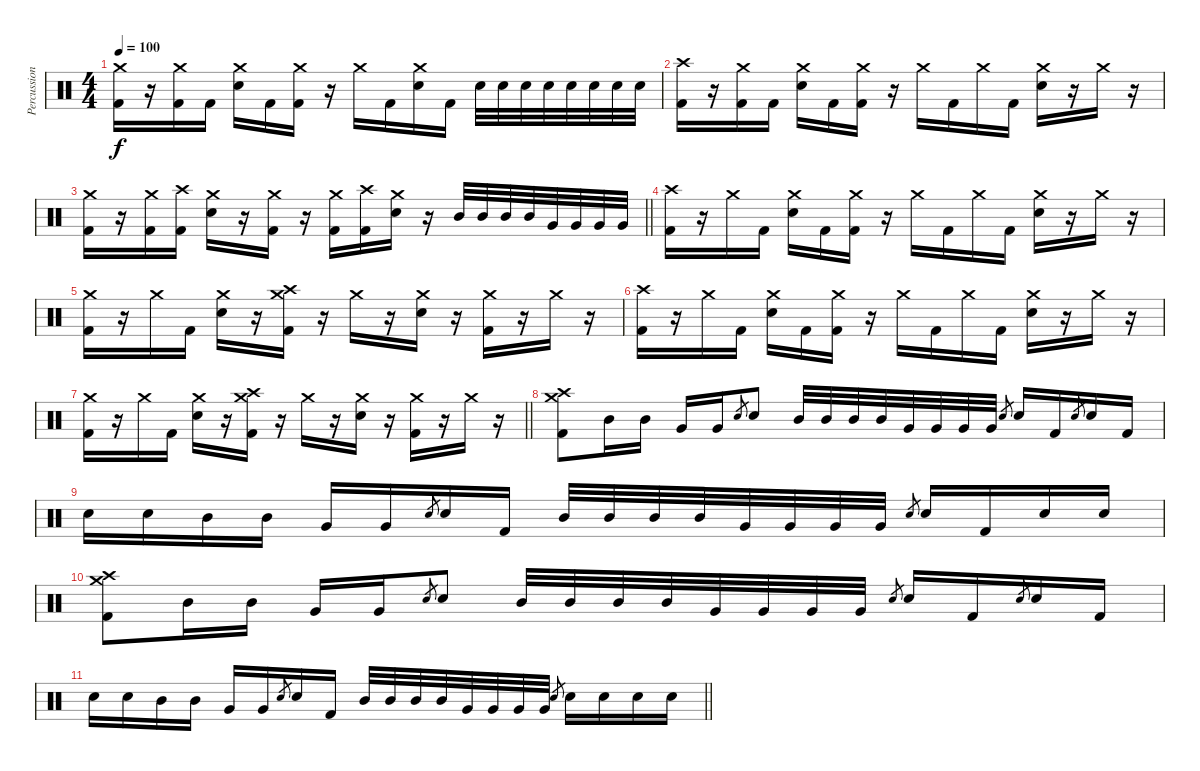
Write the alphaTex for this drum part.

\track ("Percussion" "Percussion") {instrument percussion}
\staff {score}
\articulation defaults
\ts (4 4)
\tempo 100
\clef neutral
\ks c
("Crash medium (hit)" "Kick (hit) 2").16{dy f} r.16 ("Crash medium (hit)" "Kick (hit) 2").16 "Kick (hit) 2".16 ("Crash medium (hit)" "Electric Snare (hit)").16 "Kick (hit) 2".16 ("Crash medium (hit)" "Kick (hit) 2").16 r.16 "Crash medium (hit)".16 "Kick (hit) 2".16 ("Crash medium (hit)" "Electric Snare (hit)").16 "Kick (hit) 2".16 "Electric Snare (hit)".32 "Electric Snare (hit)".32 "Electric Snare (hit)".32 "Electric Snare (hit)".32 "Electric Snare (hit)".32 "Electric Snare (hit)".32 "Electric Snare (hit)".32 "Electric Snare (hit)".32 |
("Crash high (hit)" "Kick (hit) 2").16 r.16 ("Crash medium (hit)" "Kick (hit) 2").16 "Kick (hit) 2".16 ("Crash medium (hit)" "Electric Snare (hit)").16 "Kick (hit) 2".16 ("Crash medium (hit)" "Kick (hit) 2").16 r.16 "Crash medium (hit)".16 "Kick (hit) 2".16 "Crash medium (hit)".16 "Kick (hit) 2".16 ("Crash medium (hit)" "Electric Snare (hit)").16 r.16 "Crash medium (hit)".16 r.16 |
\barLineRight lightlight
("Crash medium (hit)" "Kick (hit) 2").16 r.16 ("Crash medium (hit)" "Kick (hit) 2").16 ("Crash high (hit)" "Kick (hit) 2").16 ("Crash medium (hit)" "Electric Snare (hit)").16 r.16 ("Crash medium (hit)" "Kick (hit) 2").16 r.16 ("Crash medium (hit)" "Kick (hit) 2").16 ("Crash high (hit)" "Kick (hit) 2").16 ("Crash medium (hit)" "Electric Snare (hit)").16 r.16 "Mid Tom (hit)".32 "Mid Tom (hit)".32 "Mid Tom (hit)".32 "Mid Tom (hit)".32 "Very Low Tom (hit)".32 "Very Low Tom (hit)".32 "Very Low Tom (hit)".32 "Very Low Tom (hit)".32 |
("Crash high (hit)" "Kick (hit) 2").16 r.16 "Crash medium (hit)".16 "Kick (hit) 2".16 ("Crash medium (hit)" "Electric Snare (hit)").16 "Kick (hit) 2".16 ("Crash medium (hit)" "Kick (hit) 2").16 r.16 "Crash medium (hit)".16 "Kick (hit) 2".16 "Crash medium (hit)".16 "Kick (hit) 2".16 ("Crash medium (hit)" "Electric Snare (hit)").16 r.16 "Crash medium (hit)".16 r.16 |
("Crash medium (hit)" "Kick (hit) 2").16 r.16 "Crash medium (hit)".16 "Kick (hit) 2".16 ("Crash medium (hit)" "Electric Snare (hit)").16 r.16 ("Crash high (hit)" "Crash medium (hit)" "Kick (hit) 2").16 r.16 "Crash medium (hit)".16 r.16 ("Crash medium (hit)" "Electric Snare (hit)").16 r.16 ("Crash medium (hit)" "Kick (hit) 2").16 r.16 "Crash medium (hit)".16 r.16 |
("Crash high (hit)" "Kick (hit) 2").16 r.16 "Crash medium (hit)".16 "Kick (hit) 2".16 ("Crash medium (hit)" "Electric Snare (hit)").16 "Kick (hit) 2".16 ("Crash medium (hit)" "Kick (hit) 2").16 r.16 "Crash medium (hit)".16 "Kick (hit) 2".16 "Crash medium (hit)".16 "Kick (hit) 2".16 ("Crash medium (hit)" "Electric Snare (hit)").16 r.16 "Crash medium (hit)".16 r.16 |
\barLineRight lightlight
("Crash medium (hit)" "Kick (hit) 2").16 r.16 "Crash medium (hit)".16 "Kick (hit) 2".16 ("Crash medium (hit)" "Electric Snare (hit)").16 r.16 ("Crash high (hit)" "Crash medium (hit)" "Kick (hit) 2").16 r.16 "Crash medium (hit)".16 r.16 ("Crash medium (hit)" "Electric Snare (hit)").16 r.16 ("Crash medium (hit)" "Kick (hit) 2").16 r.16 "Crash medium (hit)".16 r.16 |
("Crash high (hit)" "Crash medium (hit)" "Kick (hit) 2").8 "Mid Tom (hit)".16 "Mid Tom (hit)".16 "Very Low Tom (hit)".16 "Very Low Tom (hit)".16 "Electric Snare (hit)".8{gr} "Electric Snare (hit)".8 "Mid Tom (hit)".32 "Mid Tom (hit)".32 "Mid Tom (hit)".32 "Mid Tom (hit)".32 "Very Low Tom (hit)".32 "Very Low Tom (hit)".32 "Very Low Tom (hit)".32 "Very Low Tom (hit)".32 "Electric Snare (hit)".8{gr} "Electric Snare (hit)".16 "Kick (hit) 2".16 "Electric Snare (hit)".8{gr} "Electric Snare (hit)".16 "Kick (hit) 2".16 |
"Electric Snare (hit)".16 "Electric Snare (hit)".16 "Mid Tom (hit)".16 "Mid Tom (hit)".16 "Very Low Tom (hit)".16 "Very Low Tom (hit)".16 "Electric Snare (hit)".8{gr} "Electric Snare (hit)".16 "Kick (hit) 2".16 "Mid Tom (hit)".32 "Mid Tom (hit)".32 "Mid Tom (hit)".32 "Mid Tom (hit)".32 "Very Low Tom (hit)".32 "Very Low Tom (hit)".32 "Very Low Tom (hit)".32 "Very Low Tom (hit)".32 "Electric Snare (hit)".8{gr} "Electric Snare (hit)".16 "Kick (hit) 2".16 "Electric Snare (hit)".16 "Electric Snare (hit)".16 |
("Crash high (hit)" "Crash medium (hit)" "Kick (hit) 2").8 "Mid Tom (hit)".16 "Mid Tom (hit)".16 "Very Low Tom (hit)".16 "Very Low Tom (hit)".16 "Electric Snare (hit)".8{gr} "Electric Snare (hit)".8 "Mid Tom (hit)".32 "Mid Tom (hit)".32 "Mid Tom (hit)".32 "Mid Tom (hit)".32 "Very Low Tom (hit)".32 "Very Low Tom (hit)".32 "Very Low Tom (hit)".32 "Very Low Tom (hit)".32 "Electric Snare (hit)".8{gr} "Electric Snare (hit)".16 "Kick (hit) 2".16 "Electric Snare (hit)".8{gr} "Electric Snare (hit)".16 "Kick (hit) 2".16 |
\barLineRight lightlight "Electric Snare (hit)".16 "Electric Snare (hit)".16 "Mid Tom (hit)".16 "Mid Tom (hit)".16 "Very Low Tom (hit)".16 "Very Low Tom (hit)".16 "Electric Snare (hit)".8{gr} "Electric Snare (hit)".16 "Kick (hit) 2".16 "Mid Tom (hit)".32 "Mid Tom (hit)".32 "Mid Tom (hit)".32 "Mid Tom (hit)".32 "Very Low Tom (hit)".32 "Very Low Tom (hit)".32 "Very Low Tom (hit)".32 "Very Low Tom (hit)".32 "Electric Snare (hit)".8{gr} "Electric Snare (hit)".16 "Electric Snare (hit)".16 "Electric Snare (hit)".16 "Electric Snare (hit)".16
